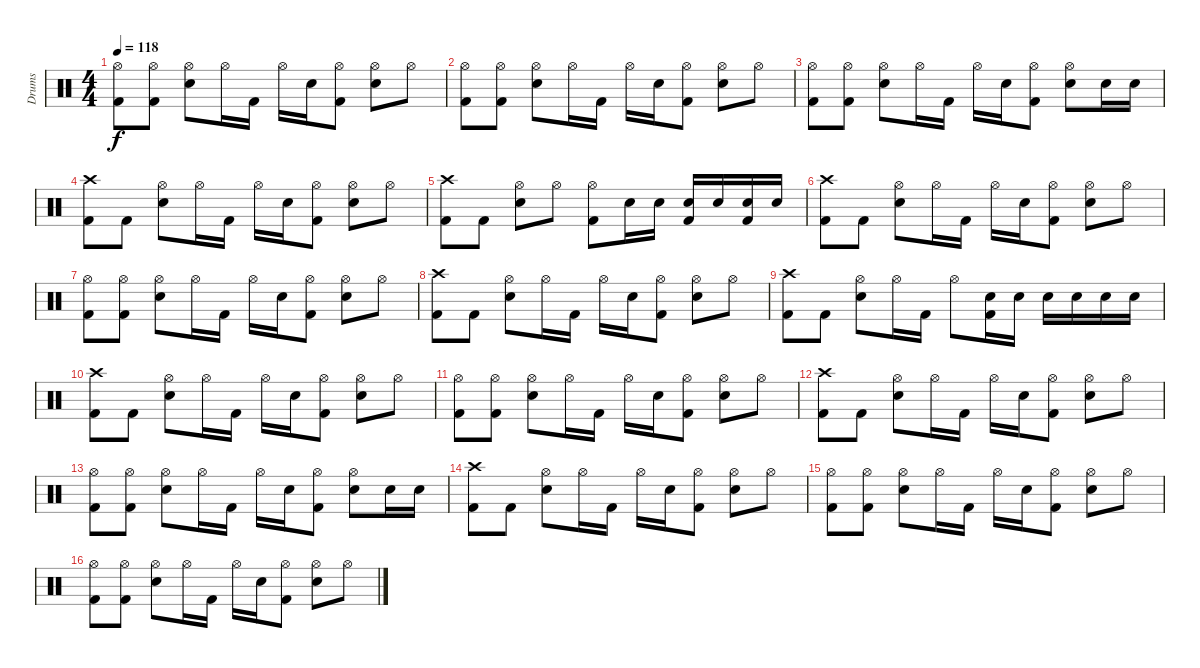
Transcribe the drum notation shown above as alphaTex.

\track ("Drums" "Drums") {instrument percussion}
\staff {score}
\articulation defaults
\ts (4 4)
\tempo 118
\clef neutral
\ks c
("Hi-Hat (open)" "Kick (hit) 2").8{dy f} ("Hi-Hat (open)" "Kick (hit) 2").8 ("Hi-Hat (open)" "Electric Snare (hit)").8 "Hi-Hat (open)".16 "Kick (hit) 2".16 "Hi-Hat (open)".16 "Electric Snare (hit)".16 ("Hi-Hat (open)" "Kick (hit) 2").8 ("Hi-Hat (open)" "Electric Snare (hit)").8 "Hi-Hat (open)".8 |
("Hi-Hat (open)" "Kick (hit) 2").8 ("Hi-Hat (open)" "Kick (hit) 2").8 ("Hi-Hat (open)" "Electric Snare (hit)").8 "Hi-Hat (open)".16 "Kick (hit) 2".16 "Hi-Hat (open)".16 "Electric Snare (hit)".16 ("Hi-Hat (open)" "Kick (hit) 2").8 ("Hi-Hat (open)" "Electric Snare (hit)").8 "Hi-Hat (open)".8 |
("Hi-Hat (open)" "Kick (hit) 2").8 ("Hi-Hat (open)" "Kick (hit) 2").8 ("Hi-Hat (open)" "Electric Snare (hit)").8 "Hi-Hat (open)".16 "Kick (hit) 2".16 "Hi-Hat (open)".16 "Electric Snare (hit)".16 ("Hi-Hat (open)" "Kick (hit) 2").8 ("Hi-Hat (open)" "Electric Snare (hit)").8 "Electric Snare (hit)".16 "Electric Snare (hit)".16 |
("Crash high (hit)" "Kick (hit) 2").8 "Kick (hit) 2".8 ("Hi-Hat (open)" "Electric Snare (hit)").8 "Hi-Hat (open)".16 "Kick (hit) 2".16 "Hi-Hat (open)".16 "Electric Snare (hit)".16 ("Hi-Hat (open)" "Kick (hit) 2").8 ("Hi-Hat (open)" "Electric Snare (hit)").8 "Hi-Hat (open)".8 |
("Crash high (hit)" "Kick (hit) 2").8 "Kick (hit) 2".8 ("Hi-Hat (open)" "Electric Snare (hit)").8 "Hi-Hat (open)".8 ("Hi-Hat (open)" "Kick (hit) 2").8 "Electric Snare (hit)".16 "Electric Snare (hit)".16 ("Electric Snare (hit)" "Kick (hit) 2").16 "Electric Snare (hit)".16 ("Electric Snare (hit)" "Kick (hit) 2").16 "Electric Snare (hit)".16 |
("Crash high (hit)" "Kick (hit) 2").8 "Kick (hit) 2".8 ("Hi-Hat (open)" "Electric Snare (hit)").8 "Hi-Hat (open)".16 "Kick (hit) 2".16 "Hi-Hat (open)".16 "Electric Snare (hit)".16 ("Hi-Hat (open)" "Kick (hit) 2").8 ("Hi-Hat (open)" "Electric Snare (hit)").8 "Hi-Hat (open)".8 |
("Hi-Hat (open)" "Kick (hit) 2").8 ("Hi-Hat (open)" "Kick (hit) 2").8 ("Hi-Hat (open)" "Electric Snare (hit)").8 "Hi-Hat (open)".16 "Kick (hit) 2".16 "Hi-Hat (open)".16 "Electric Snare (hit)".16 ("Hi-Hat (open)" "Kick (hit) 2").8 ("Hi-Hat (open)" "Electric Snare (hit)").8 "Hi-Hat (open)".8 |
("Crash high (hit)" "Kick (hit) 2").8 "Kick (hit) 2".8 ("Hi-Hat (open)" "Electric Snare (hit)").8 "Hi-Hat (open)".16 "Kick (hit) 2".16 "Hi-Hat (open)".16 "Electric Snare (hit)".16 ("Hi-Hat (open)" "Kick (hit) 2").8 ("Hi-Hat (open)" "Electric Snare (hit)").8 "Hi-Hat (open)".8 |
("Crash high (hit)" "Kick (hit) 2").8 "Kick (hit) 2".8 ("Hi-Hat (open)" "Electric Snare (hit)").8 "Hi-Hat (open)".16 "Kick (hit) 2".16 "Hi-Hat (open)".8 ("Electric Snare (hit)" "Kick (hit) 2").16 "Electric Snare (hit)".16 "Electric Snare (hit)".16 "Electric Snare (hit)".16 "Electric Snare (hit)".16 "Electric Snare (hit)".16 |
("Crash high (hit)" "Kick (hit) 2").8 "Kick (hit) 2".8 ("Hi-Hat (open)" "Electric Snare (hit)").8 "Hi-Hat (open)".16 "Kick (hit) 2".16 "Hi-Hat (open)".16 "Electric Snare (hit)".16 ("Hi-Hat (open)" "Kick (hit) 2").8 ("Hi-Hat (open)" "Electric Snare (hit)").8 "Hi-Hat (open)".8 |
("Hi-Hat (open)" "Kick (hit) 2").8 ("Hi-Hat (open)" "Kick (hit) 2").8 ("Hi-Hat (open)" "Electric Snare (hit)").8 "Hi-Hat (open)".16 "Kick (hit) 2".16 "Hi-Hat (open)".16 "Electric Snare (hit)".16 ("Hi-Hat (open)" "Kick (hit) 2").8 ("Hi-Hat (open)" "Electric Snare (hit)").8 "Hi-Hat (open)".8 |
("Crash high (hit)" "Kick (hit) 2").8 "Kick (hit) 2".8 ("Hi-Hat (open)" "Electric Snare (hit)").8 "Hi-Hat (open)".16 "Kick (hit) 2".16 "Hi-Hat (open)".16 "Electric Snare (hit)".16 ("Hi-Hat (open)" "Kick (hit) 2").8 ("Hi-Hat (open)" "Electric Snare (hit)").8 "Hi-Hat (open)".8 |
("Hi-Hat (open)" "Kick (hit) 2").8 ("Hi-Hat (open)" "Kick (hit) 2").8 ("Hi-Hat (open)" "Electric Snare (hit)").8 "Hi-Hat (open)".16 "Kick (hit) 2".16 "Hi-Hat (open)".16 "Electric Snare (hit)".16 ("Hi-Hat (open)" "Kick (hit) 2").8 ("Hi-Hat (open)" "Electric Snare (hit)").8 "Electric Snare (hit)".16 "Electric Snare (hit)".16 |
("Crash high (hit)" "Kick (hit) 2").8 "Kick (hit) 2".8 ("Hi-Hat (open)" "Electric Snare (hit)").8 "Hi-Hat (open)".16 "Kick (hit) 2".16 "Hi-Hat (open)".16 "Electric Snare (hit)".16 ("Hi-Hat (open)" "Kick (hit) 2").8 ("Hi-Hat (open)" "Electric Snare (hit)").8 "Hi-Hat (open)".8 |
("Hi-Hat (open)" "Kick (hit) 2").8 ("Hi-Hat (open)" "Kick (hit) 2").8 ("Hi-Hat (open)" "Electric Snare (hit)").8 "Hi-Hat (open)".16 "Kick (hit) 2".16 "Hi-Hat (open)".16 "Electric Snare (hit)".16 ("Hi-Hat (open)" "Kick (hit) 2").8 ("Hi-Hat (open)" "Electric Snare (hit)").8 "Hi-Hat (open)".8 |
("Hi-Hat (open)" "Kick (hit) 2").8 ("Hi-Hat (open)" "Kick (hit) 2").8 ("Hi-Hat (open)" "Electric Snare (hit)").8 "Hi-Hat (open)".16 "Kick (hit) 2".16 "Hi-Hat (open)".16 "Electric Snare (hit)".16 ("Hi-Hat (open)" "Kick (hit) 2").8 ("Hi-Hat (open)" "Electric Snare (hit)").8 "Hi-Hat (open)".8
